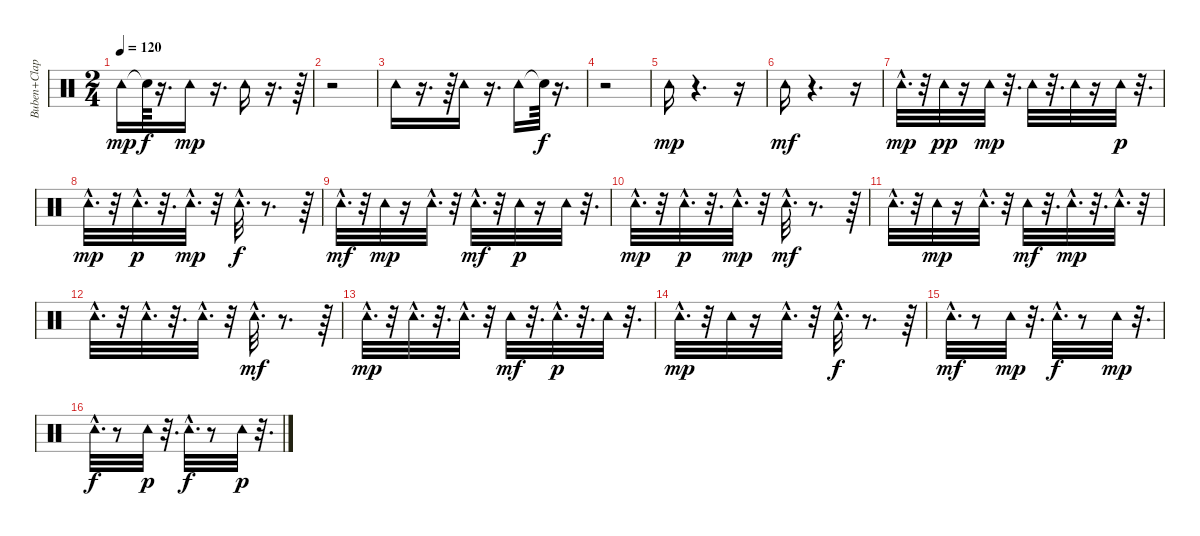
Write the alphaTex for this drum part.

\track ("Buben+Clap" "Buben+Clap") {instrument percussion}
\staff {score}
\articulation defaults
\ts (2 4)
\tempo 120
\clef neutral
\ks c "Tambourine (hit)".16{dy mp} "Snare (hit)"{t}.64{dy f}
r.16{d} "Tambourine (hit)".16{dy mp} r.16{d} "Tambourine (hit)".16 r.16{d} r.64 |
r.2 |
"Tambourine (hit)".16 r.16{d} r.64 "Tambourine (hit)".16 r.16{d} "Tambourine (hit)".16 "Snare (hit)"{t}.64{dy f} r.16{d} |
r.2 |
"Tambourine (hit)".16{dy mp} r.4{d} r.16 |
"Tambourine (hit)".16{dy mf} r.4{d} r.16 |
"Tambourine (hit)"{hac}.32{d dy mp} r.32 "Tambourine (hit)".32{dy pp} r.16 "Tambourine (hit)".32{dy mp} r.32{d} "Tambourine (hit)".32 r.32{d} "Tambourine (hit)".32 r.16 "Tambourine (hit)".32{dy p} r.32{d} |
"Tambourine (hit)"{hac}.32{d dy mp} r.32 "Tambourine (hit)"{hac}.32{d dy p} r.32{d} "Tambourine (hit)"{hac}.32{d dy mp} r.32 "Tambourine (hit)"{hac}.32{d dy f} r.8{d} r.64 |
"Tambourine (hit)"{hac}.32{d dy mf} r.32 "Tambourine (hit)".32{dy mp} r.16 "Tambourine (hit)"{hac}.32{d} r.32 "Tambourine (hit)"{hac}.32{d dy mf} r.32 "Tambourine (hit)".32{dy p} r.16 "Tambourine (hit)".32 r.32{d} |
"Tambourine (hit)"{hac}.32{d dy mp} r.32 "Tambourine (hit)"{hac}.32{d dy p} r.32{d} "Tambourine (hit)"{hac}.32{d dy mp} r.32 "Tambourine (hit)"{hac}.32{d dy mf} r.8{d} r.64 |
"Tambourine (hit)"{hac}.32{d} r.32 "Tambourine (hit)".32{dy mp} r.16 "Tambourine (hit)"{hac}.32{d} r.32 "Tambourine (hit)".32{dy mf} r.32{d} "Tambourine (hit)"{hac}.32{d dy mp} r.32{d} "Tambourine (hit)"{hac}.32{d} r.32 |
"Tambourine (hit)"{hac}.32{d} r.32 "Tambourine (hit)"{hac}.32{d} r.32{d} "Tambourine (hit)"{hac}.32{d} r.32 "Tambourine (hit)"{hac}.32{d dy mf} r.8{d} r.64 |
"Tambourine (hit)"{hac}.32{d dy mp} r.32 "Tambourine (hit)"{hac}.32{d} r.32{d} "Tambourine (hit)"{hac}.32{d} r.32 "Tambourine (hit)".32{dy mf} r.32{d} "Tambourine (hit)"{hac}.32{d dy p} r.32{d} "Tambourine (hit)".32 r.32{d} |
"Tambourine (hit)"{hac}.32{d dy mp} r.32 "Tambourine (hit)".32 r.16 "Tambourine (hit)"{hac}.32{d} r.32 "Tambourine (hit)"{hac}.32{d dy f} r.8{d} r.64 |
"Tambourine (hit)"{hac}.32{d dy mf} r.8 "Tambourine (hit)".32{dy mp} r.32{d} "Tambourine (hit)"{hac}.32{d dy f} r.8 "Tambourine (hit)".32{dy mp} r.32{d} |
"Tambourine (hit)"{hac}.32{d dy f} r.8 "Tambourine (hit)".32{dy p} r.32{d} "Tambourine (hit)"{hac}.32{d dy f} r.8 "Tambourine (hit)".32{dy p} r.32{d}
